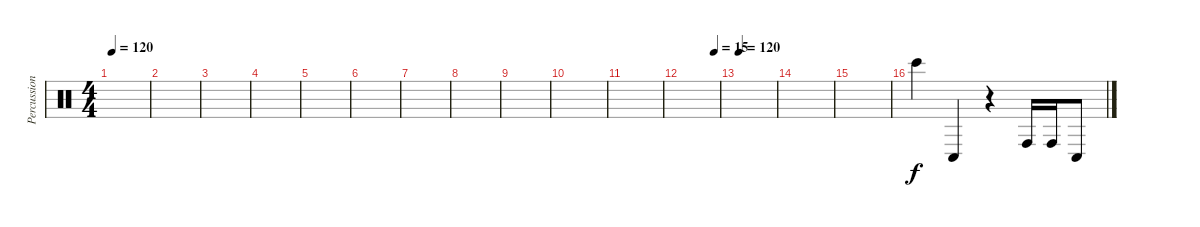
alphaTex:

\track ("Percussion" "Percussion") {instrument percussion}
\staff {score}
\articulation defaults
\ts (4 4)
\tempo 120
\clef neutral
\ks c
|
|
|
|
|
|
|
|
|
|
|
\tempo (15 0.875)
|
\tempo 120
|
|
|
"Bongo High (hit)".4 "Conga low (hit)".4 r.4 "Conga high (hit)".16 "Conga high (hit)".16 "Conga low (hit)".8
